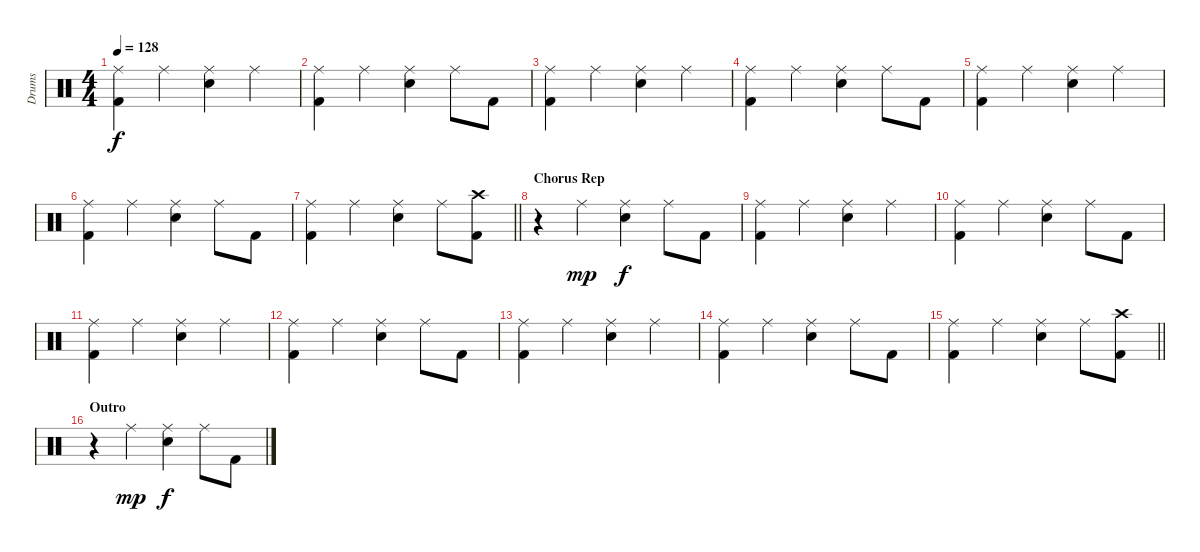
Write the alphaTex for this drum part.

\track ("Drums" "Drums") {instrument percussion}
\staff {score}
\articulation defaults
\ts (4 4)
\tempo 128
\clef neutral
\ks c
("Ride (middle)" "Kick (hit) 2").4{dy f} "Ride (middle)".4 ("Ride (middle)" "Snare (hit) 2").4 "Ride (middle)".4 |
("Ride (middle)" "Kick (hit) 2").4 "Ride (middle)".4 ("Ride (middle)" "Snare (hit) 2").4 "Ride (middle)".8 "Kick (hit) 2".8 |
("Ride (middle)" "Kick (hit) 2").4 "Ride (middle)".4 ("Ride (middle)" "Snare (hit) 2").4 "Ride (middle)".4 |
("Ride (middle)" "Kick (hit) 2").4 "Ride (middle)".4 ("Ride (middle)" "Snare (hit) 2").4 "Ride (middle)".8 "Kick (hit) 2".8 |
("Ride (middle)" "Kick (hit) 2").4 "Ride (middle)".4 ("Ride (middle)" "Snare (hit) 2").4 "Ride (middle)".4 |
("Ride (middle)" "Kick (hit) 2").4 "Ride (middle)".4 ("Ride (middle)" "Snare (hit) 2").4 "Ride (middle)".8 "Kick (hit) 2".8 |
\barLineRight lightlight
("Ride (middle)" "Kick (hit) 2").4 "Ride (middle)".4 ("Ride (middle)" "Snare (hit) 2").4 "Ride (middle)".8 ("Crash high (hit)" "Kick (hit) 2").8 |
\section ("" "Chorus Rep")
r.4 "Ride (middle)".4{dy mp} ("Ride (middle)" "Snare (hit) 2").4{dy f} "Ride (middle)".8 "Kick (hit) 2".8 |
("Ride (middle)" "Kick (hit) 2").4 "Ride (middle)".4 ("Ride (middle)" "Snare (hit) 2").4 "Ride (middle)".4 |
("Ride (middle)" "Kick (hit) 2").4 "Ride (middle)".4 ("Ride (middle)" "Snare (hit) 2").4 "Ride (middle)".8 "Kick (hit) 2".8 |
("Ride (middle)" "Kick (hit) 2").4 "Ride (middle)".4 ("Ride (middle)" "Snare (hit) 2").4 "Ride (middle)".4 |
("Ride (middle)" "Kick (hit) 2").4 "Ride (middle)".4 ("Ride (middle)" "Snare (hit) 2").4 "Ride (middle)".8 "Kick (hit) 2".8 |
("Ride (middle)" "Kick (hit) 2").4 "Ride (middle)".4 ("Ride (middle)" "Snare (hit) 2").4 "Ride (middle)".4 |
("Ride (middle)" "Kick (hit) 2").4 "Ride (middle)".4 ("Ride (middle)" "Snare (hit) 2").4 "Ride (middle)".8 "Kick (hit) 2".8 |
\barLineRight lightlight
("Ride (middle)" "Kick (hit) 2").4 "Ride (middle)".4 ("Ride (middle)" "Snare (hit) 2").4 "Ride (middle)".8 ("Crash high (hit)" "Kick (hit) 2").8 |
\section ("" "Outro")
r.4 "Ride (middle)".4{dy mp} ("Ride (middle)" "Snare (hit) 2").4{dy f} "Ride (middle)".8 "Kick (hit) 2".8
